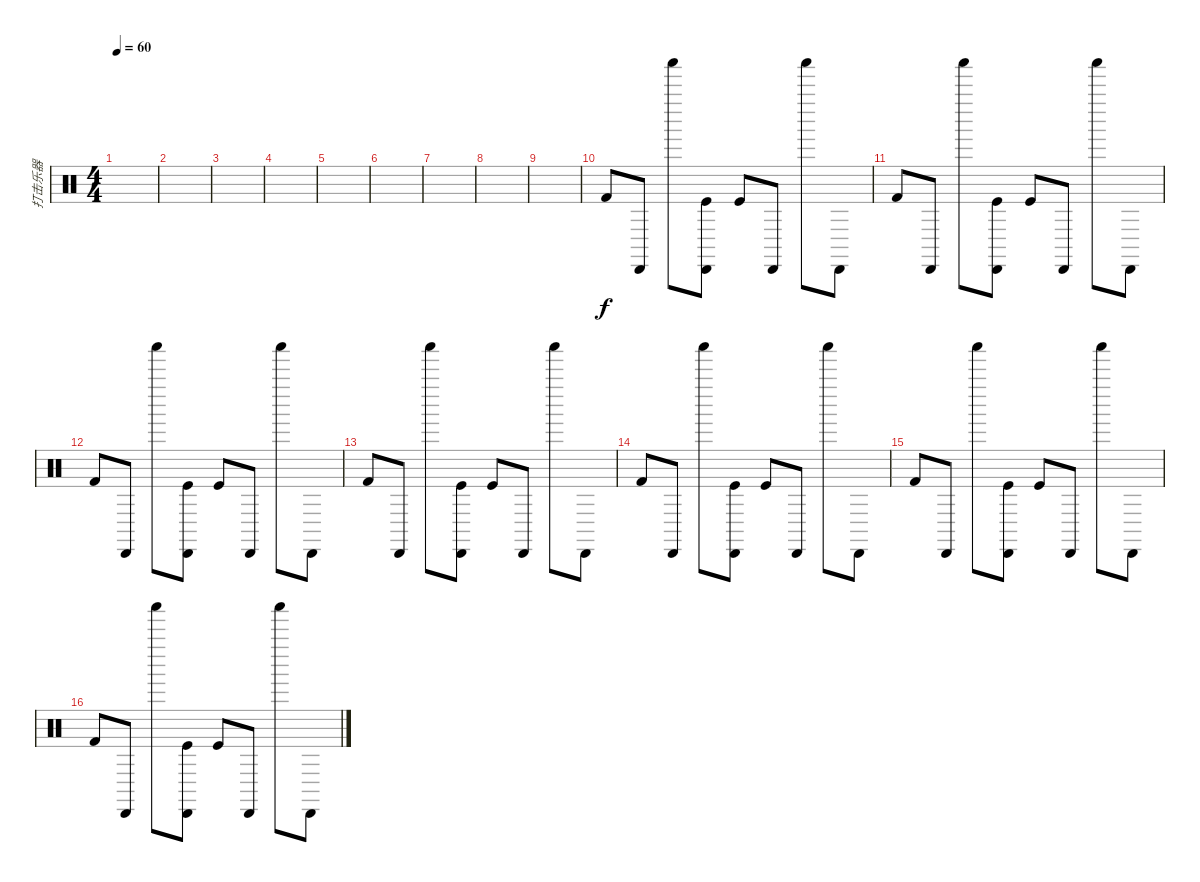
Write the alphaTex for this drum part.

\track ("打击乐器" "打击乐器") {instrument percussion}
\staff {score}
\articulation defaults
\ts (4 4)
\tempo 60
\clef neutral
\ks c
|
|
|
|
|
|
|
|
|
"Kick (hit) 2".8{volume 15} "Cabasa (hit)".8{volume 12} "Shaker (hit)".8{volume 9} ("Kick (hit)" "Cabasa (hit)").8{volume 15} "Kick (hit)".8{volume 15} "Cabasa (hit)".8{volume 12} "Shaker (hit)".8{volume 9} "Cabasa (hit)".8{volume 12} |
"Kick (hit) 2".8{volume 15} "Cabasa (hit)".8{volume 12} "Shaker (hit)".8{volume 9} ("Kick (hit)" "Cabasa (hit)").8{volume 15} "Kick (hit)".8{volume 15} "Cabasa (hit)".8{volume 12} "Shaker (hit)".8{volume 9} "Cabasa (hit)".8{volume 12} |
"Kick (hit) 2".8{volume 15} "Cabasa (hit)".8{volume 12} "Shaker (hit)".8{volume 9} ("Kick (hit)" "Cabasa (hit)").8{volume 15} "Kick (hit)".8{volume 15} "Cabasa (hit)".8{volume 12} "Shaker (hit)".8{volume 9} "Cabasa (hit)".8{volume 12} |
"Kick (hit) 2".8{volume 15} "Cabasa (hit)".8{volume 12} "Shaker (hit)".8{volume 9} ("Kick (hit)" "Cabasa (hit)").8{volume 15} "Kick (hit)".8{volume 15} "Cabasa (hit)".8{volume 12} "Shaker (hit)".8{volume 9} "Cabasa (hit)".8{volume 12} |
"Kick (hit) 2".8{volume 15} "Cabasa (hit)".8{volume 12} "Shaker (hit)".8{volume 9} ("Kick (hit)" "Cabasa (hit)").8{volume 15} "Kick (hit)".8{volume 15} "Cabasa (hit)".8{volume 12} "Shaker (hit)".8{volume 9} "Cabasa (hit)".8{volume 12} |
"Kick (hit) 2".8{volume 15} "Cabasa (hit)".8{volume 12} "Shaker (hit)".8{volume 9} ("Kick (hit)" "Cabasa (hit)").8{volume 15} "Kick (hit)".8{volume 15} "Cabasa (hit)".8{volume 12} "Shaker (hit)".8{volume 9} "Cabasa (hit)".8{volume 12} |
"Kick (hit) 2".8{volume 15} "Cabasa (hit)".8{volume 12} "Shaker (hit)".8{volume 9} ("Kick (hit)" "Cabasa (hit)").8{volume 15} "Kick (hit)".8{volume 15} "Cabasa (hit)".8{volume 12} "Shaker (hit)".8{volume 9} "Cabasa (hit)".8{volume 12}
